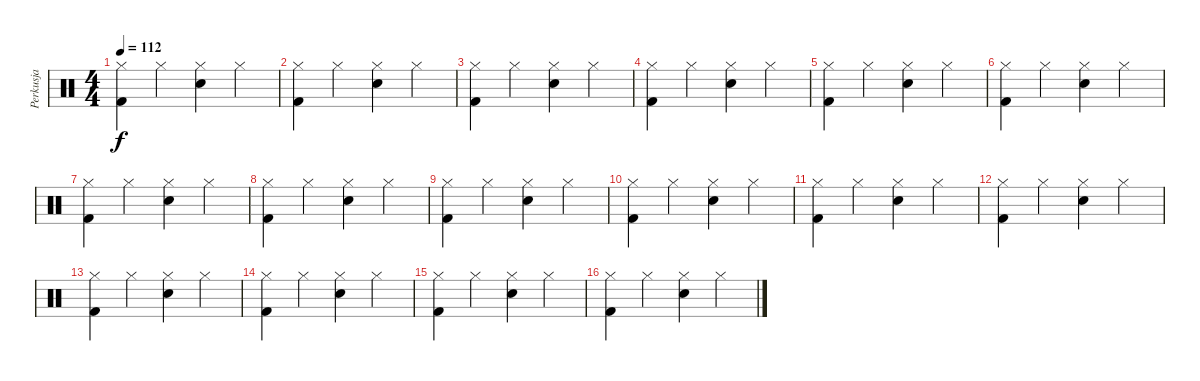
\track ("Perkusja" "Perkusja") {instrument percussion}
\staff {score}
\articulation defaults
\ts (4 4)
\tempo 112
\clef neutral
\ks c
("Kick (hit) 2" "Hi-Hat (closed)").4{dy f} "Hi-Hat (closed)".4 ("Snare (hit) 2" "Hi-Hat (closed)").4 "Hi-Hat (closed)".4 |
("Kick (hit) 2" "Hi-Hat (closed)").4 "Hi-Hat (closed)".4 ("Snare (hit) 2" "Hi-Hat (closed)").4 "Hi-Hat (closed)".4 |
("Kick (hit) 2" "Hi-Hat (closed)").4 "Hi-Hat (closed)".4 ("Snare (hit) 2" "Hi-Hat (closed)").4 "Hi-Hat (closed)".4 |
("Kick (hit) 2" "Hi-Hat (closed)").4 "Hi-Hat (closed)".4 ("Snare (hit) 2" "Hi-Hat (closed)").4 "Hi-Hat (closed)".4 |
("Kick (hit) 2" "Hi-Hat (closed)").4 "Hi-Hat (closed)".4 ("Snare (hit) 2" "Hi-Hat (closed)").4 "Hi-Hat (closed)".4 |
("Kick (hit) 2" "Hi-Hat (closed)").4 "Hi-Hat (closed)".4 ("Snare (hit) 2" "Hi-Hat (closed)").4 "Hi-Hat (closed)".4 |
("Kick (hit) 2" "Hi-Hat (closed)").4 "Hi-Hat (closed)".4 ("Snare (hit) 2" "Hi-Hat (closed)").4 "Hi-Hat (closed)".4 |
("Kick (hit) 2" "Hi-Hat (closed)").4 "Hi-Hat (closed)".4 ("Snare (hit) 2" "Hi-Hat (closed)").4 "Hi-Hat (closed)".4 |
("Kick (hit) 2" "Hi-Hat (closed)").4 "Hi-Hat (closed)".4 ("Snare (hit) 2" "Hi-Hat (closed)").4 "Hi-Hat (closed)".4 |
("Kick (hit) 2" "Hi-Hat (closed)").4 "Hi-Hat (closed)".4 ("Snare (hit) 2" "Hi-Hat (closed)").4 "Hi-Hat (closed)".4 |
("Kick (hit) 2" "Hi-Hat (closed)").4 "Hi-Hat (closed)".4 ("Snare (hit) 2" "Hi-Hat (closed)").4 "Hi-Hat (closed)".4 |
("Kick (hit) 2" "Hi-Hat (closed)").4 "Hi-Hat (closed)".4 ("Snare (hit) 2" "Hi-Hat (closed)").4 "Hi-Hat (closed)".4 |
("Kick (hit) 2" "Hi-Hat (closed)").4 "Hi-Hat (closed)".4 ("Snare (hit) 2" "Hi-Hat (closed)").4 "Hi-Hat (closed)".4 |
("Kick (hit) 2" "Hi-Hat (closed)").4 "Hi-Hat (closed)".4 ("Snare (hit) 2" "Hi-Hat (closed)").4 "Hi-Hat (closed)".4 |
("Kick (hit) 2" "Hi-Hat (closed)").4 "Hi-Hat (closed)".4 ("Snare (hit) 2" "Hi-Hat (closed)").4 "Hi-Hat (closed)".4 |
("Kick (hit) 2" "Hi-Hat (closed)").4 "Hi-Hat (closed)".4 ("Snare (hit) 2" "Hi-Hat (closed)").4 "Hi-Hat (closed)".4
